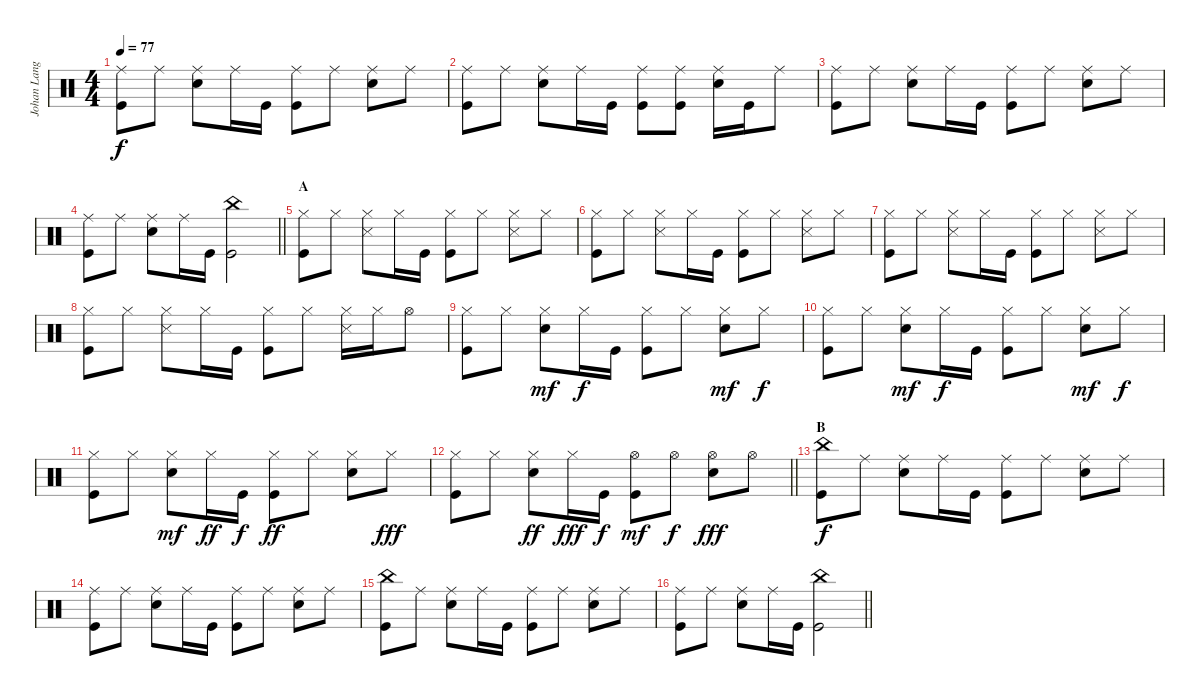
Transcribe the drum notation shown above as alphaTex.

\track ("Johan Langell - drums" "Johan Lang") {instrument percussion}
\staff {score}
\articulation defaults
\ts (4 4)
\tempo 77
\clef neutral
\ks c
("Ride (middle)" "Kick (hit)").8{dy f} "Ride (middle)".8 ("Ride (middle)" "Electric Snare (hit)").8 "Ride (middle)".16 "Kick (hit)".16 ("Ride (middle)" "Kick (hit)").8 "Ride (middle)".8 ("Ride (middle)" "Electric Snare (hit)").8 "Ride (middle)".8 |
("Ride (middle)" "Kick (hit)").8 "Ride (middle)".8 ("Ride (middle)" "Electric Snare (hit)").8 "Ride (middle)".16 "Kick (hit)".16 ("Ride (middle)" "Kick (hit)").8 ("Ride (middle)" "Kick (hit)").8 ("Ride (middle)" "Electric Snare (hit)").16 "Kick (hit)".16 "Ride (middle)".8 |
("Ride (middle)" "Kick (hit)").8 "Ride (middle)".8 ("Ride (middle)" "Electric Snare (hit)").8 "Ride (middle)".16 "Kick (hit)".16 ("Ride (middle)" "Kick (hit)").8 "Ride (middle)".8 ("Ride (middle)" "Electric Snare (hit)").8 "Ride (middle)".8 |
\barLineRight lightlight
("Ride (middle)" "Kick (hit)").8 "Ride (middle)".8 ("Ride (middle)" "Electric Snare (hit)").8 "Ride (middle)".16 "Kick (hit)".16 ("China (hit)" "Kick (hit)").2 |
\section ("" "A")
("Hi-Hat (closed)" "Kick (hit)").8 "Hi-Hat (closed)".8 ("Hi-Hat (closed)" "Snare (side stick) 3").8 "Hi-Hat (closed)".16 "Kick (hit)".16 ("Hi-Hat (closed)" "Kick (hit)").8 "Hi-Hat (closed)".8 ("Hi-Hat (closed)" "Snare (side stick) 3").8 "Hi-Hat (closed)".8 |
("Hi-Hat (closed)" "Kick (hit)").8 "Hi-Hat (closed)".8 ("Hi-Hat (closed)" "Snare (side stick) 3").8 "Hi-Hat (closed)".16 "Kick (hit)".16 ("Hi-Hat (closed)" "Kick (hit)").8 "Hi-Hat (closed)".8 ("Hi-Hat (closed)" "Snare (side stick) 3").8 "Hi-Hat (closed)".8 |
("Hi-Hat (closed)" "Kick (hit)").8 "Hi-Hat (closed)".8 ("Hi-Hat (closed)" "Snare (side stick) 3").8 "Hi-Hat (closed)".16 "Kick (hit)".16 ("Hi-Hat (closed)" "Kick (hit)").8 "Hi-Hat (closed)".8 ("Hi-Hat (closed)" "Snare (side stick) 3").8 "Hi-Hat (closed)".8 |
("Hi-Hat (closed)" "Kick (hit)").8 "Hi-Hat (closed)".8 ("Hi-Hat (closed)" "Snare (side stick) 3").8 "Hi-Hat (closed)".16 "Kick (hit)".16 ("Hi-Hat (closed)" "Kick (hit)").8 "Hi-Hat (closed)".8 ("Hi-Hat (closed)" "Snare (side stick) 3").16 "Hi-Hat (closed)".16 "Hi-Hat (open)".8 |
("Hi-Hat (closed)" "Kick (hit)").8 "Hi-Hat (closed)".8 ("Hi-Hat (closed)" "Electric Snare (hit)").8{dy mf} "Hi-Hat (closed)".16{dy f} "Kick (hit)".16 ("Hi-Hat (closed)" "Kick (hit)").8 "Hi-Hat (closed)".8 ("Hi-Hat (closed)" "Electric Snare (hit)").8{dy mf} "Hi-Hat (closed)".8{dy f} |
("Hi-Hat (closed)" "Kick (hit)").8 "Hi-Hat (closed)".8 ("Hi-Hat (closed)" "Electric Snare (hit)").8{dy mf} "Hi-Hat (closed)".16{dy f} "Kick (hit)".16 ("Hi-Hat (closed)" "Kick (hit)").8 "Hi-Hat (closed)".8 ("Hi-Hat (closed)" "Electric Snare (hit)").8{dy mf} "Hi-Hat (closed)".8{dy f} |
("Hi-Hat (closed)" "Kick (hit)").8 "Hi-Hat (closed)".8 ("Hi-Hat (closed)" "Electric Snare (hit)").8{dy mf} "Hi-Hat (closed)".16{dy ff} "Kick (hit)".16{dy f} ("Hi-Hat (closed)" "Kick (hit)").8{dy ff} "Hi-Hat (closed)".8 ("Hi-Hat (closed)" "Electric Snare (hit)").8 "Hi-Hat (closed)".8{dy fff} |
\barLineRight lightlight
("Hi-Hat (closed)" "Kick (hit)").8 "Hi-Hat (closed)".8 ("Hi-Hat (closed)" "Electric Snare (hit)").8{dy ff} "Hi-Hat (closed)".16{dy fff} "Kick (hit)".16{dy f} ("Hi-Hat (open)" "Kick (hit)").8{dy mf} "Hi-Hat (open)".8{dy f} ("Hi-Hat (open)" "Electric Snare (hit)").8{dy fff} "Hi-Hat (open)".8 |
\section ("" "B")
("China (hit)" "Kick (hit)").8{dy f} "Ride (middle)".8 ("Ride (middle)" "Electric Snare (hit)").8 "Ride (middle)".16 "Kick (hit)".16 ("Ride (middle)" "Kick (hit)").8 "Ride (middle)".8 ("Ride (middle)" "Electric Snare (hit)").8 "Ride (middle)".8 |
("Ride (middle)" "Kick (hit)").8 "Ride (middle)".8 ("Ride (middle)" "Electric Snare (hit)").8 "Ride (middle)".16 "Kick (hit)".16 ("Ride (middle)" "Kick (hit)").8 "Ride (middle)".8 ("Ride (middle)" "Electric Snare (hit)").8 "Ride (middle)".8 |
("China (hit)" "Kick (hit)").8 "Ride (middle)".8 ("Ride (middle)" "Electric Snare (hit)").8 "Ride (middle)".16 "Kick (hit)".16 ("Ride (middle)" "Kick (hit)").8 "Ride (middle)".8 ("Ride (middle)" "Electric Snare (hit)").8 "Ride (middle)".8 |
\barLineRight lightlight
("Ride (middle)" "Kick (hit)").8 "Ride (middle)".8 ("Ride (middle)" "Electric Snare (hit)").8 "Ride (middle)".16 "Kick (hit)".16 ("China (hit)" "Kick (hit)").2
